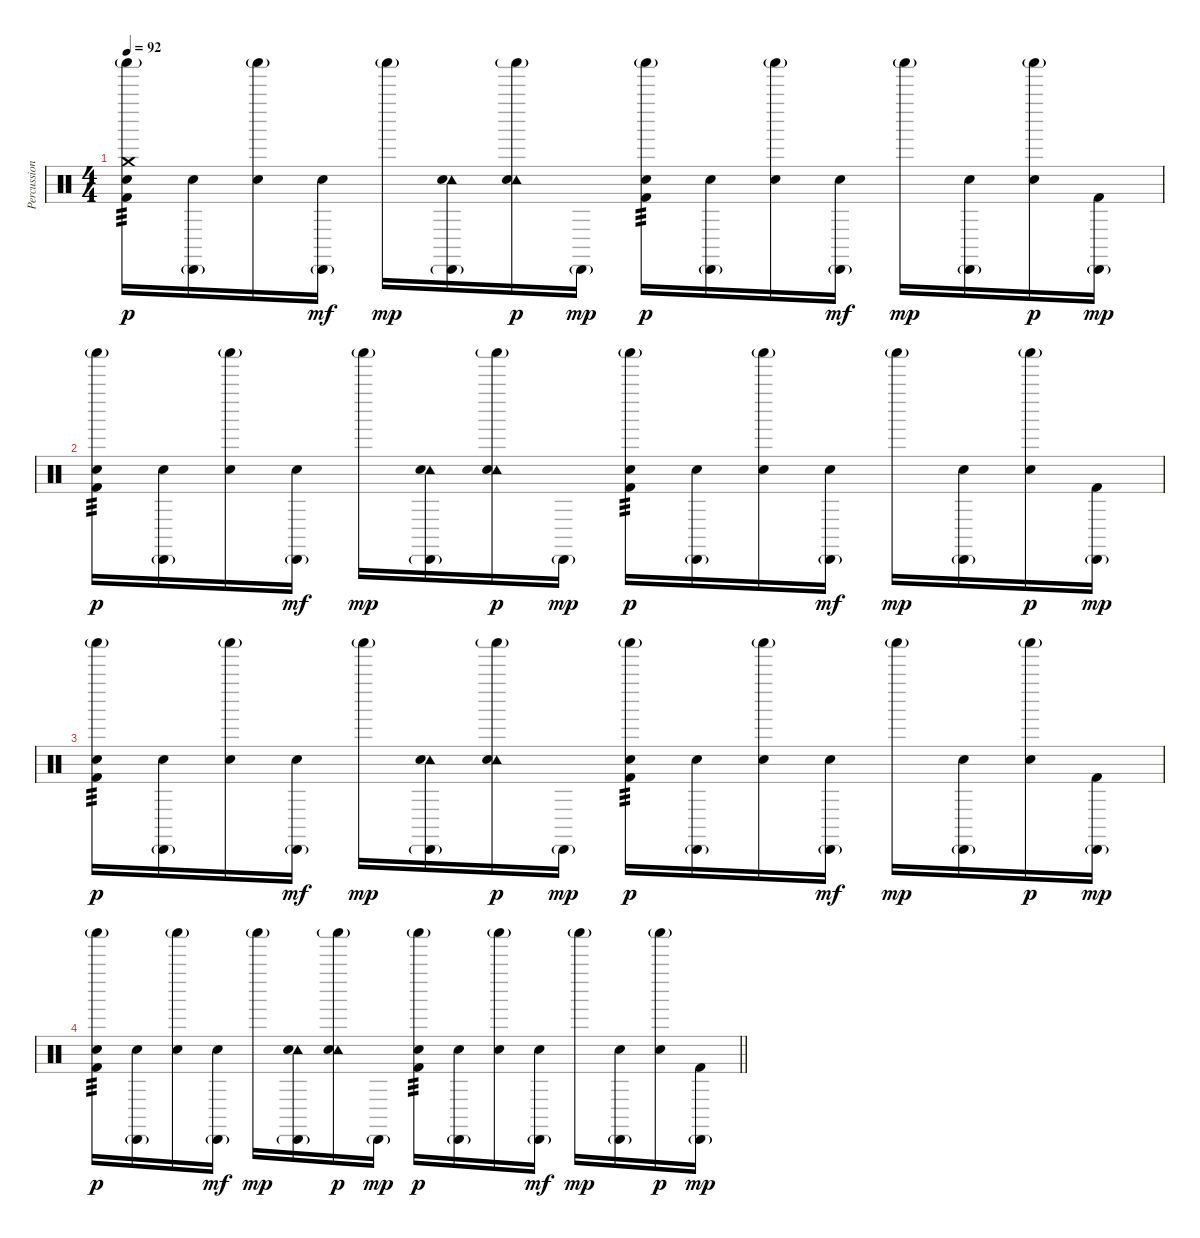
\track ("Percussion2" "Percussion") {instrument percussion}
\staff {score}
\articulation defaults
\ts (4 4)
\tempo 92
\clef neutral
\ks c
("Shaker (hit)"{g} "Crash medium (hit)" "Snare (hit) 2" "Kick (hit) 2").16{tp 3 dy p} ("Cabasa (hit)"{g} "Snare (hit) 2").16 ("Shaker (hit)"{g} "Snare (hit) 2").16 ("Cabasa (hit)"{g} "Snare (hit) 2").16{dy mf} "Shaker (hit)"{g}.16{dy mp} ("Cabasa (hit)"{g} "Tambourine (hit)" "Snare (hit) 2").16 ("Shaker (hit)"{g} "Tambourine (hit)" "Snare (hit) 2").16{dy p} "Cabasa (hit)"{g}.16{dy mp} ("Shaker (hit)"{g} "Snare (hit) 2" "Kick (hit) 2").16{tp 3 dy p} ("Cabasa (hit)"{g} "Snare (hit) 2").16 ("Shaker (hit)"{g} "Snare (hit) 2").16 ("Cabasa (hit)"{g} "Snare (hit) 2").16{dy mf} "Shaker (hit)"{g}.16{dy mp} ("Cabasa (hit)"{g} "Snare (hit) 2").16 ("Shaker (hit)"{g} "Snare (hit) 2").16{dy p} ("Cabasa (hit)"{g} "Kick (hit) 2").16{dy mp} |
("Shaker (hit)"{g} "Snare (hit) 2" "Kick (hit) 2").16{tp 3 dy p} ("Cabasa (hit)"{g} "Snare (hit) 2").16 ("Shaker (hit)"{g} "Snare (hit) 2").16 ("Cabasa (hit)"{g} "Snare (hit) 2").16{dy mf} "Shaker (hit)"{g}.16{dy mp} ("Cabasa (hit)"{g} "Tambourine (hit)" "Snare (hit) 2").16 ("Shaker (hit)"{g} "Tambourine (hit)" "Snare (hit) 2").16{dy p} "Cabasa (hit)"{g}.16{dy mp} ("Shaker (hit)"{g} "Snare (hit) 2" "Kick (hit) 2").16{tp 3 dy p} ("Cabasa (hit)"{g} "Snare (hit) 2").16 ("Shaker (hit)"{g} "Snare (hit) 2").16 ("Cabasa (hit)"{g} "Snare (hit) 2").16{dy mf} "Shaker (hit)"{g}.16{dy mp} ("Cabasa (hit)"{g} "Snare (hit) 2").16 ("Shaker (hit)"{g} "Snare (hit) 2").16{dy p} ("Cabasa (hit)"{g} "Kick (hit) 2").16{dy mp} |
("Shaker (hit)"{g} "Snare (hit) 2" "Kick (hit) 2").16{tp 3 dy p} ("Cabasa (hit)"{g} "Snare (hit) 2").16 ("Shaker (hit)"{g} "Snare (hit) 2").16 ("Cabasa (hit)"{g} "Snare (hit) 2").16{dy mf} "Shaker (hit)"{g}.16{dy mp} ("Cabasa (hit)"{g} "Tambourine (hit)" "Snare (hit) 2").16 ("Shaker (hit)"{g} "Tambourine (hit)" "Snare (hit) 2").16{dy p} "Cabasa (hit)"{g}.16{dy mp} ("Shaker (hit)"{g} "Snare (hit) 2" "Kick (hit) 2").16{tp 3 dy p} ("Cabasa (hit)"{g} "Snare (hit) 2").16 ("Shaker (hit)"{g} "Snare (hit) 2").16 ("Cabasa (hit)"{g} "Snare (hit) 2").16{dy mf} "Shaker (hit)"{g}.16{dy mp} ("Cabasa (hit)"{g} "Snare (hit) 2").16 ("Shaker (hit)"{g} "Snare (hit) 2").16{dy p} ("Cabasa (hit)"{g} "Kick (hit) 2").16{dy mp} |
\barLineRight lightlight
("Shaker (hit)"{g} "Snare (hit) 2" "Kick (hit) 2").16{tp 3 dy p} ("Cabasa (hit)"{g} "Snare (hit) 2").16 ("Shaker (hit)"{g} "Snare (hit) 2").16 ("Cabasa (hit)"{g} "Snare (hit) 2").16{dy mf} "Shaker (hit)"{g}.16{dy mp} ("Cabasa (hit)"{g} "Tambourine (hit)" "Snare (hit) 2").16 ("Shaker (hit)"{g} "Tambourine (hit)" "Snare (hit) 2").16{dy p} "Cabasa (hit)"{g}.16{dy mp} ("Shaker (hit)"{g} "Snare (hit) 2" "Kick (hit) 2").16{tp 3 dy p} ("Cabasa (hit)"{g} "Snare (hit) 2").16 ("Shaker (hit)"{g} "Snare (hit) 2").16 ("Cabasa (hit)"{g} "Snare (hit) 2").16{dy mf} "Shaker (hit)"{g}.16{dy mp} ("Cabasa (hit)"{g} "Snare (hit) 2").16 ("Shaker (hit)"{g} "Snare (hit) 2").16{dy p} ("Cabasa (hit)"{g} "Kick (hit) 2").16{dy mp}
